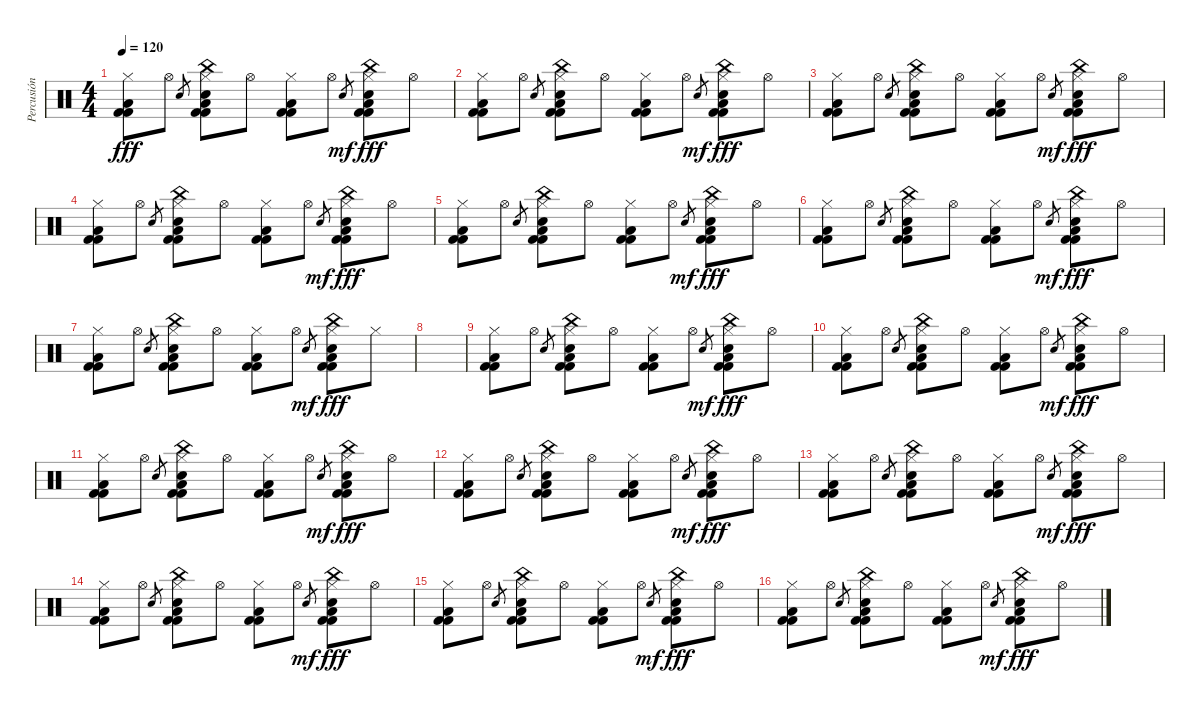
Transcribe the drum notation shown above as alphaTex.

\track ("Percusión II" "Percusión ") {instrument percussion}
\staff {score}
\articulation defaults
\ts (4 4)
\tempo 120
\clef neutral
\ks c
("Kick (hit) 2" "Hi-Hat (closed)" "Low Floor Tom (hit)" "Kick (hit) 2").8{dy fff} "Hi-Hat (open)".8 "Hand Clap (hit)".8{gr} ("Kick (hit) 2" "Hi-Hat (closed)" "Electric Snare (hit)" "China (hit)" "Low Floor Tom (hit)" "Kick (hit) 2").8 "Hi-Hat (open)".8 ("Kick (hit) 2" "Hi-Hat (closed)" "Low Floor Tom (hit)" "Kick (hit) 2").8 "Hi-Hat (open)".8 "Hand Clap (hit)".8{gr dy mf} ("Kick (hit) 2" "Hi-Hat (closed)" "Electric Snare (hit)" "China (hit)" "Low Floor Tom (hit)" "Kick (hit) 2").8{dy fff} "Hi-Hat (open)".8 |
("Kick (hit) 2" "Hi-Hat (closed)" "Low Floor Tom (hit)" "Kick (hit) 2").8 "Hi-Hat (open)".8 "Hand Clap (hit)".8{gr} ("Kick (hit) 2" "Hi-Hat (closed)" "Electric Snare (hit)" "China (hit)" "Low Floor Tom (hit)" "Kick (hit) 2").8 "Hi-Hat (open)".8 ("Kick (hit) 2" "Hi-Hat (closed)" "Low Floor Tom (hit)" "Kick (hit) 2").8 "Hi-Hat (open)".8 "Hand Clap (hit)".8{gr dy mf} ("Kick (hit) 2" "Hi-Hat (closed)" "Electric Snare (hit)" "China (hit)" "Low Floor Tom (hit)" "Kick (hit) 2").8{dy fff} "Hi-Hat (open)".8 |
("Kick (hit) 2" "Hi-Hat (closed)" "Low Floor Tom (hit)" "Kick (hit) 2").8 "Hi-Hat (open)".8 "Hand Clap (hit)".8{gr} ("Kick (hit) 2" "Hi-Hat (closed)" "Electric Snare (hit)" "China (hit)" "Low Floor Tom (hit)" "Kick (hit) 2").8 "Hi-Hat (open)".8 ("Kick (hit) 2" "Hi-Hat (closed)" "Low Floor Tom (hit)" "Kick (hit) 2").8 "Hi-Hat (open)".8 "Hand Clap (hit)".8{gr dy mf} ("Kick (hit) 2" "Hi-Hat (closed)" "Electric Snare (hit)" "China (hit)" "Low Floor Tom (hit)" "Kick (hit) 2").8{dy fff} "Hi-Hat (open)".8 |
("Kick (hit) 2" "Hi-Hat (closed)" "Low Floor Tom (hit)" "Kick (hit) 2").8 "Hi-Hat (open)".8 "Hand Clap (hit)".8{gr} ("Kick (hit) 2" "Hi-Hat (closed)" "Electric Snare (hit)" "China (hit)" "Low Floor Tom (hit)" "Kick (hit) 2").8 "Hi-Hat (open)".8 ("Kick (hit) 2" "Hi-Hat (closed)" "Low Floor Tom (hit)" "Kick (hit) 2").8 "Hi-Hat (open)".8 "Hand Clap (hit)".8{gr dy mf} ("Kick (hit) 2" "Hi-Hat (closed)" "Electric Snare (hit)" "China (hit)" "Low Floor Tom (hit)" "Kick (hit) 2").8{dy fff} "Hi-Hat (open)".8 |
("Kick (hit) 2" "Hi-Hat (closed)" "Low Floor Tom (hit)" "Kick (hit) 2").8 "Hi-Hat (open)".8 "Hand Clap (hit)".8{gr} ("Kick (hit) 2" "Hi-Hat (closed)" "Electric Snare (hit)" "China (hit)" "Low Floor Tom (hit)" "Kick (hit) 2").8 "Hi-Hat (open)".8 ("Kick (hit) 2" "Hi-Hat (closed)" "Low Floor Tom (hit)" "Kick (hit) 2").8 "Hi-Hat (open)".8 "Hand Clap (hit)".8{gr dy mf} ("Kick (hit) 2" "Hi-Hat (closed)" "Electric Snare (hit)" "China (hit)" "Low Floor Tom (hit)" "Kick (hit) 2").8{dy fff} "Hi-Hat (open)".8 |
("Kick (hit) 2" "Hi-Hat (closed)" "Low Floor Tom (hit)" "Kick (hit) 2").8 "Hi-Hat (open)".8 "Hand Clap (hit)".8{gr} ("Kick (hit) 2" "Hi-Hat (closed)" "Electric Snare (hit)" "China (hit)" "Low Floor Tom (hit)" "Kick (hit) 2").8 "Hi-Hat (open)".8 ("Kick (hit) 2" "Hi-Hat (closed)" "Low Floor Tom (hit)" "Kick (hit) 2").8 "Hi-Hat (open)".8 "Hand Clap (hit)".8{gr dy mf} ("Kick (hit) 2" "Hi-Hat (closed)" "Electric Snare (hit)" "China (hit)" "Low Floor Tom (hit)" "Kick (hit) 2").8{dy fff} "Hi-Hat (open)".8 |
("Kick (hit) 2" "Hi-Hat (closed)" "Low Floor Tom (hit)" "Kick (hit) 2").8 "Hi-Hat (open)".8 "Hand Clap (hit)".8{gr} ("Kick (hit) 2" "Hi-Hat (closed)" "Electric Snare (hit)" "China (hit)" "Low Floor Tom (hit)" "Kick (hit) 2").8 "Hi-Hat (open)".8 ("Kick (hit) 2" "Hi-Hat (closed)" "Low Floor Tom (hit)" "Kick (hit) 2").8 "Hi-Hat (open)".8 "Hand Clap (hit)".8{gr dy mf} ("Kick (hit) 2" "Hi-Hat (closed)" "Electric Snare (hit)" "China (hit)" "Low Floor Tom (hit)" "Kick (hit) 2").8{dy fff} "Hi-Hat (closed)".8 |
|
("Kick (hit) 2" "Hi-Hat (closed)" "Low Floor Tom (hit)" "Kick (hit) 2").8 "Hi-Hat (open)".8 "Hand Clap (hit)".8{gr} ("Kick (hit) 2" "Hi-Hat (closed)" "Electric Snare (hit)" "China (hit)" "Low Floor Tom (hit)" "Kick (hit) 2").8 "Hi-Hat (open)".8 ("Kick (hit) 2" "Hi-Hat (closed)" "Low Floor Tom (hit)" "Kick (hit) 2").8 "Hi-Hat (open)".8 "Hand Clap (hit)".8{gr dy mf} ("Kick (hit) 2" "Hi-Hat (closed)" "Electric Snare (hit)" "China (hit)" "Low Floor Tom (hit)" "Kick (hit) 2").8{dy fff} "Hi-Hat (open)".8 |
("Kick (hit) 2" "Hi-Hat (closed)" "Low Floor Tom (hit)" "Kick (hit) 2").8 "Hi-Hat (open)".8 "Hand Clap (hit)".8{gr} ("Kick (hit) 2" "Hi-Hat (closed)" "Electric Snare (hit)" "China (hit)" "Low Floor Tom (hit)" "Kick (hit) 2").8 "Hi-Hat (open)".8 ("Kick (hit) 2" "Hi-Hat (closed)" "Low Floor Tom (hit)" "Kick (hit) 2").8 "Hi-Hat (open)".8 "Hand Clap (hit)".8{gr dy mf} ("Kick (hit) 2" "Hi-Hat (closed)" "Electric Snare (hit)" "China (hit)" "Low Floor Tom (hit)" "Kick (hit) 2").8{dy fff} "Hi-Hat (open)".8 |
("Kick (hit) 2" "Hi-Hat (closed)" "Low Floor Tom (hit)" "Kick (hit) 2").8 "Hi-Hat (open)".8 "Hand Clap (hit)".8{gr} ("Kick (hit) 2" "Hi-Hat (closed)" "Electric Snare (hit)" "China (hit)" "Low Floor Tom (hit)" "Kick (hit) 2").8 "Hi-Hat (open)".8 ("Kick (hit) 2" "Hi-Hat (closed)" "Low Floor Tom (hit)" "Kick (hit) 2").8 "Hi-Hat (open)".8 "Hand Clap (hit)".8{gr dy mf} ("Kick (hit) 2" "Hi-Hat (closed)" "Electric Snare (hit)" "China (hit)" "Low Floor Tom (hit)" "Kick (hit) 2").8{dy fff} "Hi-Hat (open)".8 |
("Kick (hit) 2" "Hi-Hat (closed)" "Low Floor Tom (hit)" "Kick (hit) 2").8 "Hi-Hat (open)".8 "Hand Clap (hit)".8{gr} ("Kick (hit) 2" "Hi-Hat (closed)" "Electric Snare (hit)" "China (hit)" "Low Floor Tom (hit)" "Kick (hit) 2").8 "Hi-Hat (open)".8 ("Kick (hit) 2" "Hi-Hat (closed)" "Low Floor Tom (hit)" "Kick (hit) 2").8 "Hi-Hat (open)".8 "Hand Clap (hit)".8{gr dy mf} ("Kick (hit) 2" "Hi-Hat (closed)" "Electric Snare (hit)" "China (hit)" "Low Floor Tom (hit)" "Kick (hit) 2").8{dy fff} "Hi-Hat (open)".8 |
("Kick (hit) 2" "Hi-Hat (closed)" "Low Floor Tom (hit)" "Kick (hit) 2").8 "Hi-Hat (open)".8 "Hand Clap (hit)".8{gr} ("Kick (hit) 2" "Hi-Hat (closed)" "Electric Snare (hit)" "China (hit)" "Low Floor Tom (hit)" "Kick (hit) 2").8 "Hi-Hat (open)".8 ("Kick (hit) 2" "Hi-Hat (closed)" "Low Floor Tom (hit)" "Kick (hit) 2").8 "Hi-Hat (open)".8 "Hand Clap (hit)".8{gr dy mf} ("Kick (hit) 2" "Hi-Hat (closed)" "Electric Snare (hit)" "China (hit)" "Low Floor Tom (hit)" "Kick (hit) 2").8{dy fff} "Hi-Hat (open)".8 |
("Kick (hit) 2" "Hi-Hat (closed)" "Low Floor Tom (hit)" "Kick (hit) 2").8 "Hi-Hat (open)".8 "Hand Clap (hit)".8{gr} ("Kick (hit) 2" "Hi-Hat (closed)" "Electric Snare (hit)" "China (hit)" "Low Floor Tom (hit)" "Kick (hit) 2").8 "Hi-Hat (open)".8 ("Kick (hit) 2" "Hi-Hat (closed)" "Low Floor Tom (hit)" "Kick (hit) 2").8 "Hi-Hat (open)".8 "Hand Clap (hit)".8{gr dy mf} ("Kick (hit) 2" "Hi-Hat (closed)" "Electric Snare (hit)" "China (hit)" "Low Floor Tom (hit)" "Kick (hit) 2").8{dy fff} "Hi-Hat (open)".8 |
("Kick (hit) 2" "Hi-Hat (closed)" "Low Floor Tom (hit)" "Kick (hit) 2").8 "Hi-Hat (open)".8 "Hand Clap (hit)".8{gr} ("Kick (hit) 2" "Hi-Hat (closed)" "Electric Snare (hit)" "China (hit)" "Low Floor Tom (hit)" "Kick (hit) 2").8 "Hi-Hat (open)".8 ("Kick (hit) 2" "Hi-Hat (closed)" "Low Floor Tom (hit)" "Kick (hit) 2").8 "Hi-Hat (open)".8 "Hand Clap (hit)".8{gr dy mf} ("Kick (hit) 2" "Hi-Hat (closed)" "Electric Snare (hit)" "China (hit)" "Low Floor Tom (hit)" "Kick (hit) 2").8{dy fff} "Hi-Hat (open)".8 |
("Kick (hit) 2" "Hi-Hat (closed)" "Low Floor Tom (hit)" "Kick (hit) 2").8 "Hi-Hat (open)".8 "Hand Clap (hit)".8{gr} ("Kick (hit) 2" "Hi-Hat (closed)" "Electric Snare (hit)" "China (hit)" "Low Floor Tom (hit)" "Kick (hit) 2").8 "Hi-Hat (open)".8 ("Kick (hit) 2" "Hi-Hat (closed)" "Low Floor Tom (hit)" "Kick (hit) 2").8 "Hi-Hat (open)".8 "Hand Clap (hit)".8{gr dy mf} ("Kick (hit) 2" "Hi-Hat (closed)" "Electric Snare (hit)" "China (hit)" "Low Floor Tom (hit)" "Kick (hit) 2").8{dy fff} "Hi-Hat (open)".8
